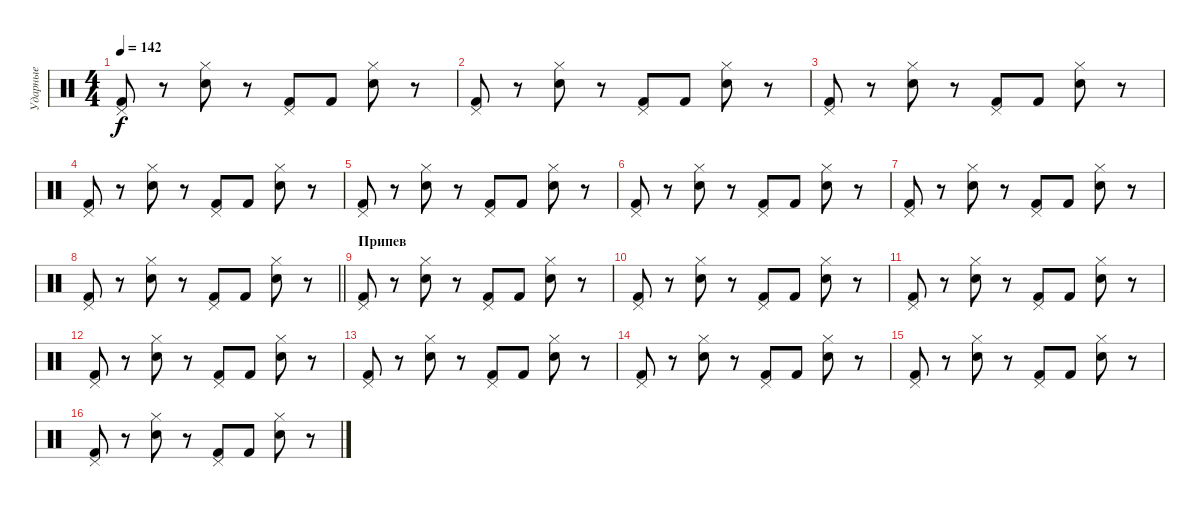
\track ("Ударные" "Ударные") {instrument percussion}
\staff {score}
\articulation defaults
\ts (4 4)
\tempo 142
\clef neutral
\ks c
("Pedal Hi-Hat (hit)" "Kick (hit) 2").8{dy f} r.8 ("Hi-Hat (closed)" "Electric Snare (hit)").8 r.8 ("Pedal Hi-Hat (hit)" "Kick (hit) 2").8 "Kick (hit) 2".8 ("Hi-Hat (closed)" "Electric Snare (hit)").8 r.8 |
("Pedal Hi-Hat (hit)" "Kick (hit) 2").8 r.8 ("Hi-Hat (closed)" "Electric Snare (hit)").8 r.8 ("Pedal Hi-Hat (hit)" "Kick (hit) 2").8 "Kick (hit) 2".8 ("Hi-Hat (closed)" "Electric Snare (hit)").8 r.8 |
("Pedal Hi-Hat (hit)" "Kick (hit) 2").8 r.8 ("Hi-Hat (closed)" "Electric Snare (hit)").8 r.8 ("Pedal Hi-Hat (hit)" "Kick (hit) 2").8 "Kick (hit) 2".8 ("Hi-Hat (closed)" "Electric Snare (hit)").8 r.8 |
("Pedal Hi-Hat (hit)" "Kick (hit) 2").8 r.8 ("Hi-Hat (closed)" "Electric Snare (hit)").8 r.8 ("Pedal Hi-Hat (hit)" "Kick (hit) 2").8 "Kick (hit) 2".8 ("Hi-Hat (closed)" "Electric Snare (hit)").8 r.8 |
("Pedal Hi-Hat (hit)" "Kick (hit) 2").8 r.8 ("Hi-Hat (closed)" "Electric Snare (hit)").8 r.8 ("Pedal Hi-Hat (hit)" "Kick (hit) 2").8 "Kick (hit) 2".8 ("Hi-Hat (closed)" "Electric Snare (hit)").8 r.8 |
("Pedal Hi-Hat (hit)" "Kick (hit) 2").8 r.8 ("Hi-Hat (closed)" "Electric Snare (hit)").8 r.8 ("Pedal Hi-Hat (hit)" "Kick (hit) 2").8 "Kick (hit) 2".8 ("Hi-Hat (closed)" "Electric Snare (hit)").8 r.8 |
("Pedal Hi-Hat (hit)" "Kick (hit) 2").8 r.8 ("Hi-Hat (closed)" "Electric Snare (hit)").8 r.8 ("Pedal Hi-Hat (hit)" "Kick (hit) 2").8 "Kick (hit) 2".8 ("Hi-Hat (closed)" "Electric Snare (hit)").8 r.8 |
\barLineRight lightlight
("Pedal Hi-Hat (hit)" "Kick (hit) 2").8 r.8 ("Hi-Hat (closed)" "Electric Snare (hit)").8 r.8 ("Pedal Hi-Hat (hit)" "Kick (hit) 2").8 "Kick (hit) 2".8 ("Hi-Hat (closed)" "Electric Snare (hit)").8 r.8 |
\section ("" "Припев")
("Pedal Hi-Hat (hit)" "Kick (hit) 2").8 r.8 ("Hi-Hat (closed)" "Electric Snare (hit)").8 r.8 ("Pedal Hi-Hat (hit)" "Kick (hit) 2").8 "Kick (hit) 2".8 ("Hi-Hat (closed)" "Electric Snare (hit)").8 r.8 |
("Pedal Hi-Hat (hit)" "Kick (hit) 2").8 r.8 ("Hi-Hat (closed)" "Electric Snare (hit)").8 r.8 ("Pedal Hi-Hat (hit)" "Kick (hit) 2").8 "Kick (hit) 2".8 ("Hi-Hat (closed)" "Electric Snare (hit)").8 r.8 |
("Pedal Hi-Hat (hit)" "Kick (hit) 2").8 r.8 ("Hi-Hat (closed)" "Electric Snare (hit)").8 r.8 ("Pedal Hi-Hat (hit)" "Kick (hit) 2").8 "Kick (hit) 2".8 ("Hi-Hat (closed)" "Electric Snare (hit)").8 r.8 |
("Pedal Hi-Hat (hit)" "Kick (hit) 2").8 r.8 ("Hi-Hat (closed)" "Electric Snare (hit)").8 r.8 ("Pedal Hi-Hat (hit)" "Kick (hit) 2").8 "Kick (hit) 2".8 ("Hi-Hat (closed)" "Electric Snare (hit)").8 r.8 |
("Pedal Hi-Hat (hit)" "Kick (hit) 2").8 r.8 ("Hi-Hat (closed)" "Electric Snare (hit)").8 r.8 ("Pedal Hi-Hat (hit)" "Kick (hit) 2").8 "Kick (hit) 2".8 ("Hi-Hat (closed)" "Electric Snare (hit)").8 r.8 |
("Pedal Hi-Hat (hit)" "Kick (hit) 2").8 r.8 ("Hi-Hat (closed)" "Electric Snare (hit)").8 r.8 ("Pedal Hi-Hat (hit)" "Kick (hit) 2").8 "Kick (hit) 2".8 ("Hi-Hat (closed)" "Electric Snare (hit)").8 r.8 |
("Pedal Hi-Hat (hit)" "Kick (hit) 2").8 r.8 ("Hi-Hat (closed)" "Electric Snare (hit)").8 r.8 ("Pedal Hi-Hat (hit)" "Kick (hit) 2").8 "Kick (hit) 2".8 ("Hi-Hat (closed)" "Electric Snare (hit)").8 r.8 |
("Pedal Hi-Hat (hit)" "Kick (hit) 2").8 r.8 ("Hi-Hat (closed)" "Electric Snare (hit)").8 r.8 ("Pedal Hi-Hat (hit)" "Kick (hit) 2").8 "Kick (hit) 2".8 ("Hi-Hat (closed)" "Electric Snare (hit)").8 r.8
